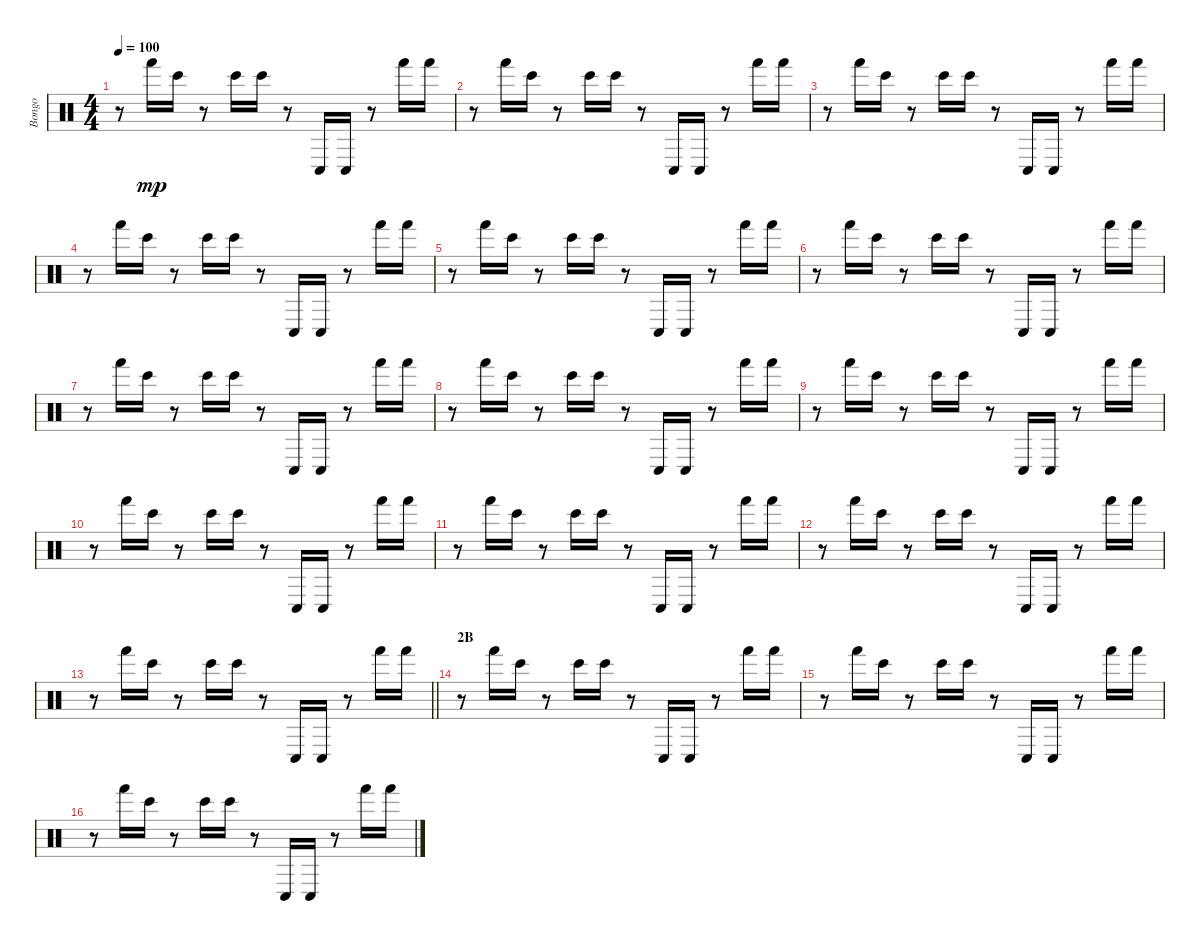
\track ("Bongo" "Bongo") {instrument percussion}
\staff {score}
\articulation defaults
\ts (4 4)
\tempo 100
\clef neutral
\ks c
r.8{dy mp} "Hand (hit)".16 "Bongo High (hit)".16 r.8 "Bongo High (hit)".16 "Bongo High (hit)".16 r.8 "Conga low (hit)".16 "Conga low (hit)".16 r.8 "Hand (hit)".16 "Hand (hit)".16 |
r.8 "Hand (hit)".16 "Bongo High (hit)".16 r.8 "Bongo High (hit)".16 "Bongo High (hit)".16 r.8 "Conga low (hit)".16 "Conga low (hit)".16 r.8 "Hand (hit)".16 "Hand (hit)".16 |
r.8 "Hand (hit)".16 "Bongo High (hit)".16 r.8 "Bongo High (hit)".16 "Bongo High (hit)".16 r.8 "Conga low (hit)".16 "Conga low (hit)".16 r.8 "Hand (hit)".16 "Hand (hit)".16 |
r.8 "Hand (hit)".16 "Bongo High (hit)".16 r.8 "Bongo High (hit)".16 "Bongo High (hit)".16 r.8 "Conga low (hit)".16 "Conga low (hit)".16 r.8 "Hand (hit)".16 "Hand (hit)".16 |
r.8 "Hand (hit)".16 "Bongo High (hit)".16 r.8 "Bongo High (hit)".16 "Bongo High (hit)".16 r.8 "Conga low (hit)".16 "Conga low (hit)".16 r.8 "Hand (hit)".16 "Hand (hit)".16 |
r.8 "Hand (hit)".16 "Bongo High (hit)".16 r.8 "Bongo High (hit)".16 "Bongo High (hit)".16 r.8 "Conga low (hit)".16 "Conga low (hit)".16 r.8 "Hand (hit)".16 "Hand (hit)".16 |
r.8 "Hand (hit)".16 "Bongo High (hit)".16 r.8 "Bongo High (hit)".16 "Bongo High (hit)".16 r.8 "Conga low (hit)".16 "Conga low (hit)".16 r.8 "Hand (hit)".16 "Hand (hit)".16 |
r.8 "Hand (hit)".16 "Bongo High (hit)".16 r.8 "Bongo High (hit)".16 "Bongo High (hit)".16 r.8 "Conga low (hit)".16 "Conga low (hit)".16 r.8 "Hand (hit)".16 "Hand (hit)".16 |
r.8 "Hand (hit)".16 "Bongo High (hit)".16 r.8 "Bongo High (hit)".16 "Bongo High (hit)".16 r.8 "Conga low (hit)".16 "Conga low (hit)".16 r.8 "Hand (hit)".16 "Hand (hit)".16 |
r.8 "Hand (hit)".16 "Bongo High (hit)".16 r.8 "Bongo High (hit)".16 "Bongo High (hit)".16 r.8 "Conga low (hit)".16 "Conga low (hit)".16 r.8 "Hand (hit)".16 "Hand (hit)".16 |
r.8 "Hand (hit)".16 "Bongo High (hit)".16 r.8 "Bongo High (hit)".16 "Bongo High (hit)".16 r.8 "Conga low (hit)".16 "Conga low (hit)".16 r.8 "Hand (hit)".16 "Hand (hit)".16 |
r.8 "Hand (hit)".16 "Bongo High (hit)".16 r.8 "Bongo High (hit)".16 "Bongo High (hit)".16 r.8 "Conga low (hit)".16 "Conga low (hit)".16 r.8 "Hand (hit)".16 "Hand (hit)".16 |
\barLineRight lightlight
r.8 "Hand (hit)".16 "Bongo High (hit)".16 r.8 "Bongo High (hit)".16 "Bongo High (hit)".16 r.8 "Conga low (hit)".16 "Conga low (hit)".16 r.8 "Hand (hit)".16 "Hand (hit)".16 |
\section ("" "2B")
r.8 "Hand (hit)".16 "Bongo High (hit)".16 r.8 "Bongo High (hit)".16 "Bongo High (hit)".16 r.8 "Conga low (hit)".16 "Conga low (hit)".16 r.8 "Hand (hit)".16 "Hand (hit)".16 |
r.8 "Hand (hit)".16 "Bongo High (hit)".16 r.8 "Bongo High (hit)".16 "Bongo High (hit)".16 r.8 "Conga low (hit)".16 "Conga low (hit)".16 r.8 "Hand (hit)".16 "Hand (hit)".16 |
r.8 "Hand (hit)".16 "Bongo High (hit)".16 r.8 "Bongo High (hit)".16 "Bongo High (hit)".16 r.8 "Conga low (hit)".16 "Conga low (hit)".16 r.8 "Hand (hit)".16 "Hand (hit)".16
